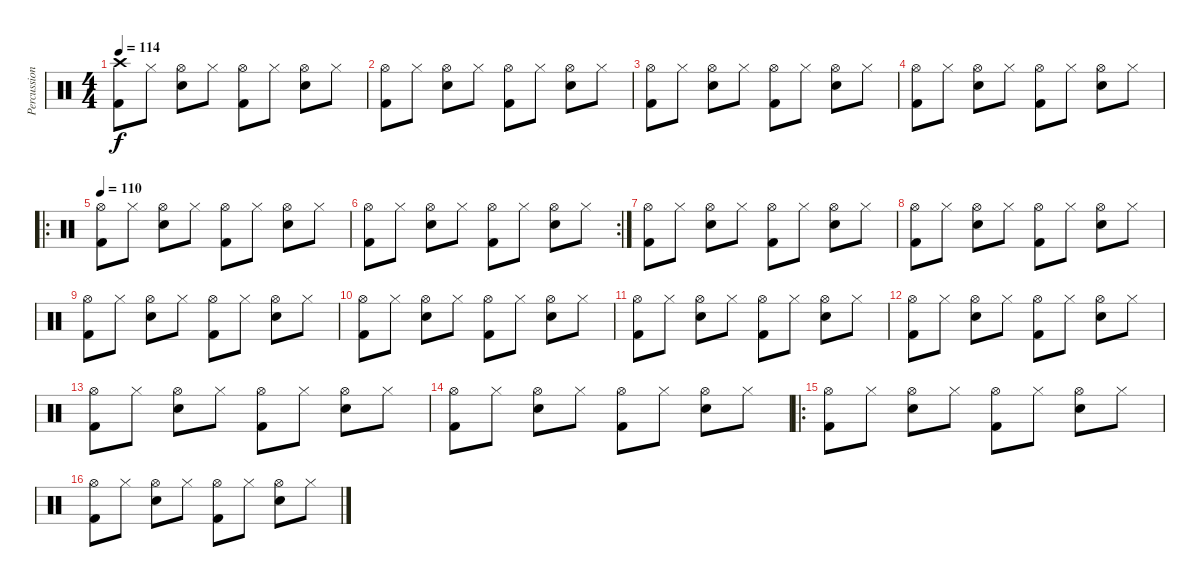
\track ("Percussion" "Percussion") {instrument percussion}
\staff {score}
\articulation defaults
\ts (4 4)
\tempo 114
\clef neutral
\ks c
("Crash high (hit)" "Kick (hit) 2").8{dy f} "Hi-Hat (closed)".8 ("Hi-Hat (open)" "Snare (hit) 2").8 "Hi-Hat (closed)".8 ("Hi-Hat (open)" "Kick (hit) 2").8 "Hi-Hat (closed)".8 ("Hi-Hat (open)" "Snare (hit) 2").8 "Hi-Hat (closed)".8 |
("Hi-Hat (open)" "Kick (hit) 2").8 "Hi-Hat (closed)".8 ("Hi-Hat (open)" "Snare (hit) 2").8 "Hi-Hat (closed)".8 ("Hi-Hat (open)" "Kick (hit) 2").8 "Hi-Hat (closed)".8 ("Hi-Hat (open)" "Snare (hit) 2").8 "Hi-Hat (closed)".8 |
("Hi-Hat (open)" "Kick (hit) 2").8 "Hi-Hat (closed)".8 ("Hi-Hat (open)" "Snare (hit) 2").8 "Hi-Hat (closed)".8 ("Hi-Hat (open)" "Kick (hit) 2").8 "Hi-Hat (closed)".8 ("Hi-Hat (open)" "Snare (hit) 2").8 "Hi-Hat (closed)".8 |
("Hi-Hat (open)" "Kick (hit) 2").8 "Hi-Hat (closed)".8 ("Hi-Hat (open)" "Snare (hit) 2").8 "Hi-Hat (closed)".8 ("Hi-Hat (open)" "Kick (hit) 2").8 "Hi-Hat (closed)".8 ("Hi-Hat (open)" "Snare (hit) 2").8 "Hi-Hat (closed)".8 |
\ro
\tempo 110
("Hi-Hat (open)" "Kick (hit) 2").8 "Hi-Hat (closed)".8 ("Hi-Hat (open)" "Snare (hit) 2").8 "Hi-Hat (closed)".8 ("Hi-Hat (open)" "Kick (hit) 2").8 "Hi-Hat (closed)".8 ("Hi-Hat (open)" "Snare (hit) 2").8 "Hi-Hat (closed)".8 |
\rc 2
("Hi-Hat (open)" "Kick (hit) 2").8 "Hi-Hat (closed)".8 ("Hi-Hat (open)" "Snare (hit) 2").8 "Hi-Hat (closed)".8 ("Hi-Hat (open)" "Kick (hit) 2").8 "Hi-Hat (closed)".8 ("Hi-Hat (open)" "Snare (hit) 2").8 "Hi-Hat (closed)".8 |
("Hi-Hat (open)" "Kick (hit) 2").8 "Hi-Hat (closed)".8 ("Hi-Hat (open)" "Snare (hit) 2").8 "Hi-Hat (closed)".8 ("Hi-Hat (open)" "Kick (hit) 2").8 "Hi-Hat (closed)".8 ("Hi-Hat (open)" "Snare (hit) 2").8 "Hi-Hat (closed)".8 |
("Hi-Hat (open)" "Kick (hit) 2").8 "Hi-Hat (closed)".8 ("Hi-Hat (open)" "Snare (hit) 2").8 "Hi-Hat (closed)".8 ("Hi-Hat (open)" "Kick (hit) 2").8 "Hi-Hat (closed)".8 ("Hi-Hat (open)" "Snare (hit) 2").8 "Hi-Hat (closed)".8 |
("Hi-Hat (open)" "Kick (hit) 2").8 "Hi-Hat (closed)".8 ("Hi-Hat (open)" "Snare (hit) 2").8 "Hi-Hat (closed)".8 ("Hi-Hat (open)" "Kick (hit) 2").8 "Hi-Hat (closed)".8 ("Hi-Hat (open)" "Snare (hit) 2").8 "Hi-Hat (closed)".8 |
("Hi-Hat (open)" "Kick (hit) 2").8 "Hi-Hat (closed)".8 ("Hi-Hat (open)" "Snare (hit) 2").8 "Hi-Hat (closed)".8 ("Hi-Hat (open)" "Kick (hit) 2").8 "Hi-Hat (closed)".8 ("Hi-Hat (open)" "Snare (hit) 2").8 "Hi-Hat (closed)".8 |
("Hi-Hat (open)" "Kick (hit) 2").8 "Hi-Hat (closed)".8 ("Hi-Hat (open)" "Snare (hit) 2").8 "Hi-Hat (closed)".8 ("Hi-Hat (open)" "Kick (hit) 2").8 "Hi-Hat (closed)".8 ("Hi-Hat (open)" "Snare (hit) 2").8 "Hi-Hat (closed)".8 |
("Hi-Hat (open)" "Kick (hit) 2").8 "Hi-Hat (closed)".8 ("Hi-Hat (open)" "Snare (hit) 2").8 "Hi-Hat (closed)".8 ("Hi-Hat (open)" "Kick (hit) 2").8 "Hi-Hat (closed)".8 ("Hi-Hat (open)" "Snare (hit) 2").8 "Hi-Hat (closed)".8 |
("Hi-Hat (open)" "Kick (hit) 2").8 "Hi-Hat (closed)".8 ("Hi-Hat (open)" "Snare (hit) 2").8 "Hi-Hat (closed)".8 ("Hi-Hat (open)" "Kick (hit) 2").8 "Hi-Hat (closed)".8 ("Hi-Hat (open)" "Snare (hit) 2").8 "Hi-Hat (closed)".8 |
("Hi-Hat (open)" "Kick (hit) 2").8 "Hi-Hat (closed)".8 ("Hi-Hat (open)" "Snare (hit) 2").8 "Hi-Hat (closed)".8 ("Hi-Hat (open)" "Kick (hit) 2").8 "Hi-Hat (closed)".8 ("Hi-Hat (open)" "Snare (hit) 2").8 "Hi-Hat (closed)".8 |
\ro
("Hi-Hat (open)" "Kick (hit) 2").8 "Hi-Hat (closed)".8 ("Hi-Hat (open)" "Snare (hit) 2").8 "Hi-Hat (closed)".8 ("Hi-Hat (open)" "Kick (hit) 2").8 "Hi-Hat (closed)".8 ("Hi-Hat (open)" "Snare (hit) 2").8 "Hi-Hat (closed)".8 |
("Hi-Hat (open)" "Kick (hit) 2").8 "Hi-Hat (closed)".8 ("Hi-Hat (open)" "Snare (hit) 2").8 "Hi-Hat (closed)".8 ("Hi-Hat (open)" "Kick (hit) 2").8 "Hi-Hat (closed)".8 ("Hi-Hat (open)" "Snare (hit) 2").8 "Hi-Hat (closed)".8
